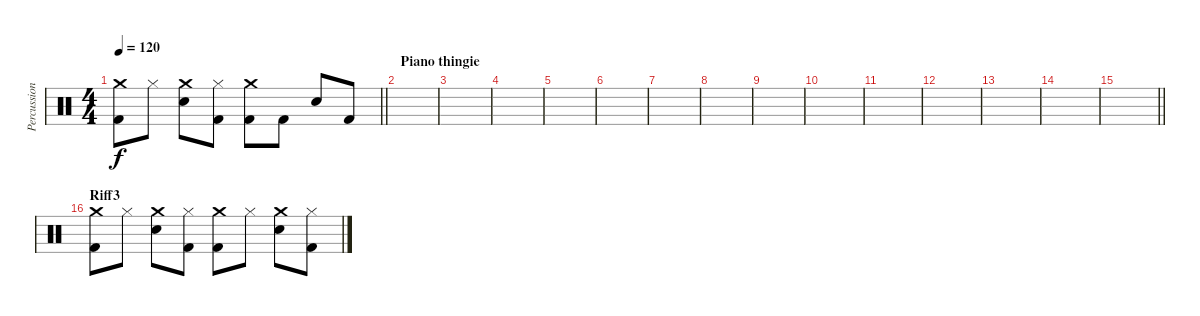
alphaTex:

\track ("Percussion" "Percussion") {instrument percussion}
\staff {score}
\articulation defaults
\ts (4 4)
\tempo 120
\clef neutral
\barLineRight lightlight
\ks c
("Crash medium (hit)" "Kick (hit) 2").8{dy f} "Hi-Hat (closed)".8 ("Crash medium (hit)" "Electric Snare (hit)").8 ("Hi-Hat (closed)" "Kick (hit) 2").8 ("Crash medium (hit)" "Kick (hit) 2").8 "Kick (hit) 2".8 "Electric Snare (hit)".8 "Kick (hit) 2".8 |
\section ("" "Piano thingie")
|
|
|
|
|
|
|
|
|
|
|
|
|
\barLineRight lightlight
|
\section ("" "Riff3")
("Crash medium (hit)" "Kick (hit) 2").8 "Hi-Hat (closed)".8 ("Crash medium (hit)" "Electric Snare (hit)").8 ("Hi-Hat (closed)" "Kick (hit) 2").8 ("Crash medium (hit)" "Kick (hit) 2").8 "Hi-Hat (closed)".8 ("Crash medium (hit)" "Electric Snare (hit)").8 ("Hi-Hat (closed)" "Kick (hit) 2").8
